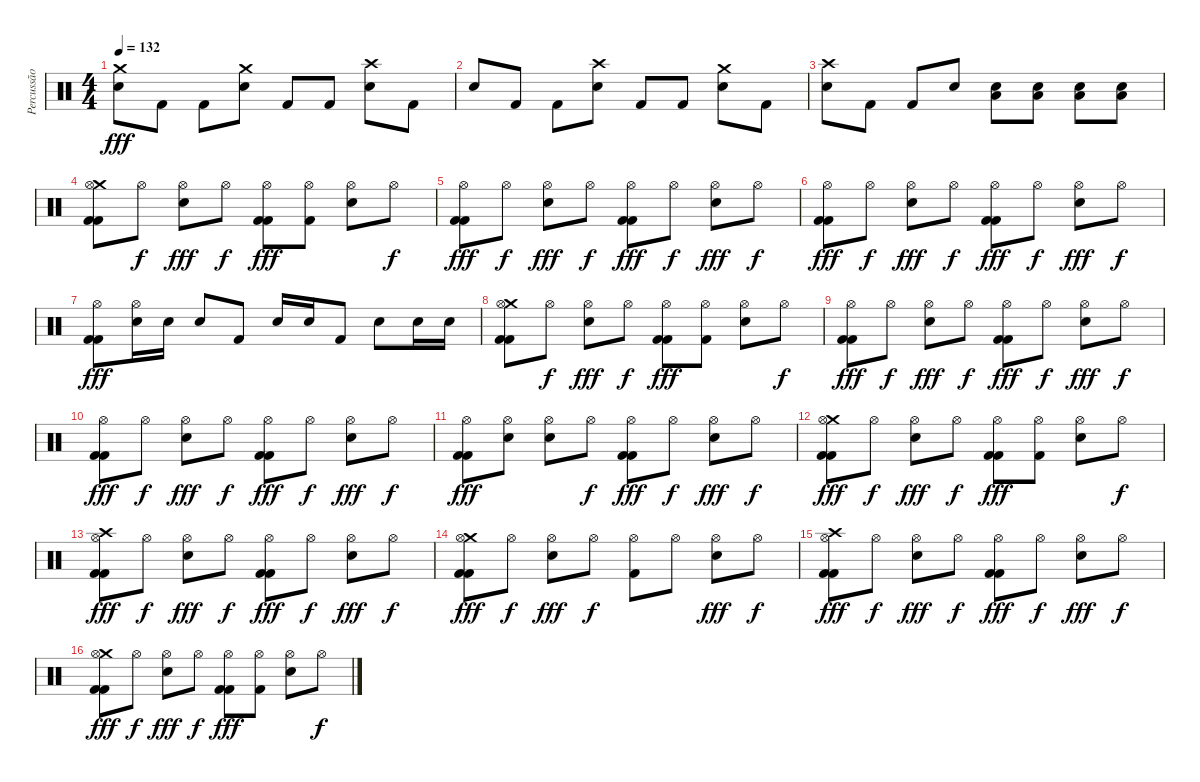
\track ("Percussão" "Percussão") {instrument percussion}
\staff {score}
\articulation defaults
\ts (4 4)
\tempo 132
\clef neutral
\ks c
("Electric Snare (hit)" "Crash medium (hit)").8{dy fff} "Kick (hit) 2".8 "Kick (hit) 2".8 ("Electric Snare (hit)" "Crash medium (hit)").8 "Kick (hit) 2".8 "Kick (hit) 2".8 ("Electric Snare (hit)" "Crash high (hit)").8 "Kick (hit) 2".8 |
"Electric Snare (hit)".8 "Kick (hit) 2".8 "Kick (hit) 2".8 ("Electric Snare (hit)" "Crash high (hit)").8 "Kick (hit) 2".8 "Kick (hit) 2".8 ("Electric Snare (hit)" "Crash medium (hit)").8 "Kick (hit) 2".8 |
("Electric Snare (hit)" "Crash high (hit)").8 "Kick (hit) 2".8 "Kick (hit) 2".8 "Electric Snare (hit)".8 ("Electric Snare (hit)" "Low Floor Tom (hit)").8 ("Electric Snare (hit)" "Low Floor Tom (hit)").8 ("Electric Snare (hit)" "Low Floor Tom (hit)").8 ("Electric Snare (hit)" "Low Floor Tom (hit)").8 |
("Kick (hit) 2" "Kick (hit) 2" "Crash medium (hit)" "Hi-Hat (open)").8 "Hi-Hat (open)".8{dy f} ("Electric Snare (hit)" "Hi-Hat (open)").8{dy fff} "Hi-Hat (open)".8{dy f} ("Kick (hit) 2" "Kick (hit) 2" "Hi-Hat (open)").8{dy fff} ("Kick (hit) 2" "Hi-Hat (open)").8 ("Electric Snare (hit)" "Hi-Hat (open)").8 "Hi-Hat (open)".8{dy f} |
("Kick (hit) 2" "Kick (hit) 2" "Hi-Hat (open)").8{dy fff} "Hi-Hat (open)".8{dy f} ("Electric Snare (hit)" "Hi-Hat (open)").8{dy fff} "Hi-Hat (open)".8{dy f} ("Kick (hit) 2" "Kick (hit) 2" "Hi-Hat (open)").8{dy fff} "Hi-Hat (open)".8{dy f} ("Electric Snare (hit)" "Hi-Hat (open)").8{dy fff} "Hi-Hat (open)".8{dy f} |
("Kick (hit) 2" "Kick (hit) 2" "Hi-Hat (open)").8{dy fff} "Hi-Hat (open)".8{dy f} ("Electric Snare (hit)" "Hi-Hat (open)").8{dy fff} "Hi-Hat (open)".8{dy f} ("Kick (hit) 2" "Kick (hit) 2" "Hi-Hat (open)").8{dy fff} "Hi-Hat (open)".8{dy f} ("Electric Snare (hit)" "Hi-Hat (open)").8{dy fff} "Hi-Hat (open)".8{dy f} |
("Kick (hit) 2" "Kick (hit) 2" "Hi-Hat (open)").8{dy fff} ("Electric Snare (hit)" "Hi-Hat (open)").16 "Electric Snare (hit)".16 "Electric Snare (hit)".8 "Kick (hit) 2".8 "Electric Snare (hit)".16 "Electric Snare (hit)".16 "Kick (hit) 2".8 "Electric Snare (hit)".8 "Electric Snare (hit)".16 "Electric Snare (hit)".16 |
("Kick (hit) 2" "Kick (hit) 2" "Crash medium (hit)" "Hi-Hat (open)").8 "Hi-Hat (open)".8{dy f} ("Electric Snare (hit)" "Hi-Hat (open)").8{dy fff} "Hi-Hat (open)".8{dy f} ("Kick (hit) 2" "Kick (hit) 2" "Hi-Hat (open)").8{dy fff} ("Kick (hit) 2" "Hi-Hat (open)").8 ("Electric Snare (hit)" "Hi-Hat (open)").8 "Hi-Hat (open)".8{dy f} |
("Kick (hit) 2" "Kick (hit) 2" "Hi-Hat (open)").8{dy fff} "Hi-Hat (open)".8{dy f} ("Electric Snare (hit)" "Hi-Hat (open)").8{dy fff} "Hi-Hat (open)".8{dy f} ("Kick (hit) 2" "Kick (hit) 2" "Hi-Hat (open)").8{dy fff} "Hi-Hat (open)".8{dy f} ("Electric Snare (hit)" "Hi-Hat (open)").8{dy fff} "Hi-Hat (open)".8{dy f} |
("Kick (hit) 2" "Kick (hit) 2" "Hi-Hat (open)").8{dy fff} "Hi-Hat (open)".8{dy f} ("Electric Snare (hit)" "Hi-Hat (open)").8{dy fff} "Hi-Hat (open)".8{dy f} ("Kick (hit) 2" "Kick (hit) 2" "Hi-Hat (open)").8{dy fff} "Hi-Hat (open)".8{dy f} ("Electric Snare (hit)" "Hi-Hat (open)").8{dy fff} "Hi-Hat (open)".8{dy f} |
("Kick (hit) 2" "Kick (hit) 2" "Hi-Hat (open)").8{dy fff} ("Electric Snare (hit)" "Hi-Hat (open)").8 ("Electric Snare (hit)" "Hi-Hat (open)").8 "Hi-Hat (open)".8{dy f} ("Kick (hit) 2" "Kick (hit) 2" "Hi-Hat (open)").8{dy fff} "Hi-Hat (open)".8{dy f} ("Electric Snare (hit)" "Hi-Hat (open)").8{dy fff} "Hi-Hat (open)".8{dy f} |
("Kick (hit) 2" "Kick (hit) 2" "Crash medium (hit)" "Hi-Hat (open)").8{dy fff} "Hi-Hat (open)".8{dy f} ("Electric Snare (hit)" "Hi-Hat (open)").8{dy fff} "Hi-Hat (open)".8{dy f} ("Kick (hit) 2" "Kick (hit) 2" "Hi-Hat (open)").8{dy fff} ("Kick (hit) 2" "Hi-Hat (open)").8 ("Electric Snare (hit)" "Hi-Hat (open)").8 "Hi-Hat (open)".8{dy f} |
("Kick (hit) 2" "Kick (hit) 2" "Crash high (hit)" "Hi-Hat (open)").8{dy fff} "Hi-Hat (open)".8{dy f} ("Electric Snare (hit)" "Hi-Hat (open)").8{dy fff} "Hi-Hat (open)".8{dy f} ("Kick (hit) 2" "Kick (hit) 2" "Hi-Hat (open)").8{dy fff} "Hi-Hat (open)".8{dy f} ("Electric Snare (hit)" "Hi-Hat (open)").8{dy fff} "Hi-Hat (open)".8{dy f} |
("Kick (hit) 2" "Kick (hit) 2" "Crash medium (hit)" "Hi-Hat (open)").8{dy fff} "Hi-Hat (open)".8{dy f} ("Electric Snare (hit)" "Hi-Hat (open)").8{dy fff} "Hi-Hat (open)".8{dy f} ("Kick (hit) 2" "Hi-Hat (open)").8 "Hi-Hat (open)".8 ("Electric Snare (hit)" "Hi-Hat (open)").8{dy fff} "Hi-Hat (open)".8{dy f} |
("Kick (hit) 2" "Kick (hit) 2" "Crash high (hit)" "Hi-Hat (open)").8{dy fff} "Hi-Hat (open)".8{dy f} ("Electric Snare (hit)" "Hi-Hat (open)").8{dy fff} "Hi-Hat (open)".8{dy f} ("Kick (hit) 2" "Kick (hit) 2" "Hi-Hat (open)").8{dy fff} "Hi-Hat (open)".8{dy f} ("Electric Snare (hit)" "Hi-Hat (open)").8{dy fff} "Hi-Hat (open)".8{dy f} |
("Kick (hit) 2" "Kick (hit) 2" "Crash medium (hit)" "Hi-Hat (open)").8{dy fff} "Hi-Hat (open)".8{dy f} ("Electric Snare (hit)" "Hi-Hat (open)").8{dy fff} "Hi-Hat (open)".8{dy f} ("Kick (hit) 2" "Kick (hit) 2" "Hi-Hat (open)").8{dy fff} ("Kick (hit) 2" "Hi-Hat (open)").8 ("Electric Snare (hit)" "Hi-Hat (open)").8 "Hi-Hat (open)".8{dy f}
